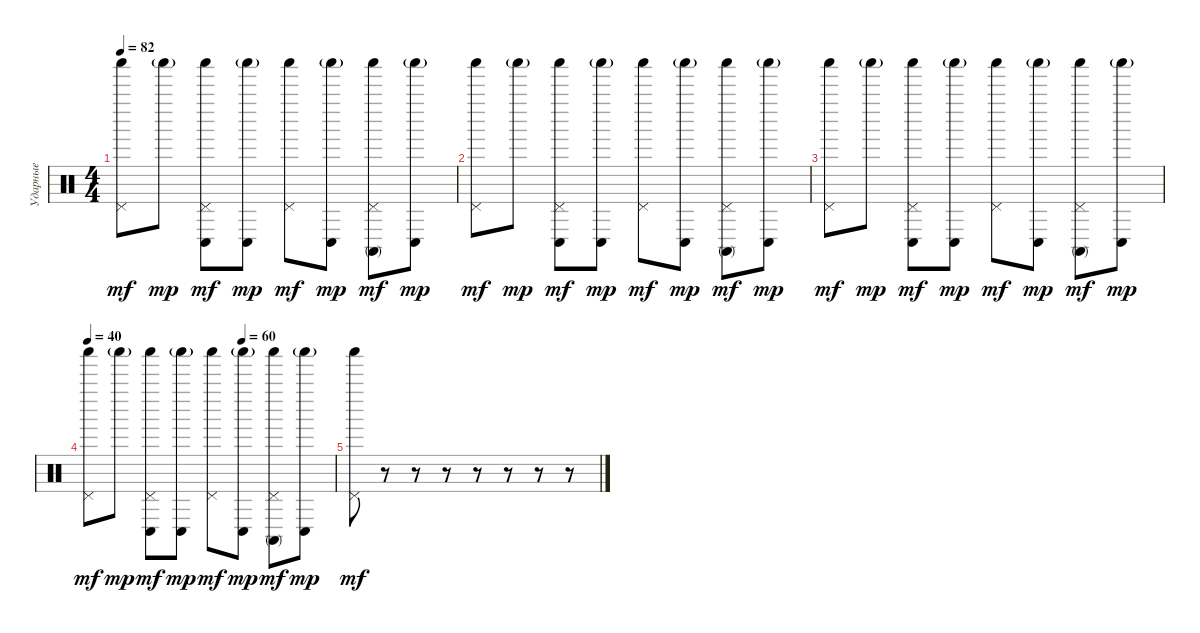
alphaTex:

\track ("Ударные" "Ударные") {instrument percussion}
\staff {score}
\articulation defaults
\ts (4 4)
\tempo 82
\clef neutral
\ks aminor
("Shaker (hit)" "Pedal Hi-Hat (hit)").8{dy mf} "Shaker (hit)"{g}.8{dy mp} ("Shaker (hit)" "Conga low (hit)" "Pedal Hi-Hat (hit)").8{dy mf} ("Shaker (hit)"{g} "Conga low (hit)").8{dy mp} ("Shaker (hit)" "Pedal Hi-Hat (hit)").8{dy mf} ("Shaker (hit)"{g} "Conga low (hit)").8{dy mp} ("Shaker (hit)" "Conga high (mute)" "Pedal Hi-Hat (hit)").8{dy mf} ("Shaker (hit)"{g} "Conga low (hit)").8{dy mp} |
("Shaker (hit)" "Pedal Hi-Hat (hit)").8{dy mf} "Shaker (hit)"{g}.8{dy mp} ("Shaker (hit)" "Conga low (hit)" "Pedal Hi-Hat (hit)").8{dy mf} ("Shaker (hit)"{g} "Conga low (hit)").8{dy mp} ("Shaker (hit)" "Pedal Hi-Hat (hit)").8{dy mf} ("Shaker (hit)"{g} "Conga low (hit)").8{dy mp} ("Shaker (hit)" "Conga high (mute)" "Pedal Hi-Hat (hit)").8{dy mf} ("Shaker (hit)"{g} "Conga low (hit)").8{dy mp} |
("Shaker (hit)" "Pedal Hi-Hat (hit)").8{dy mf} "Shaker (hit)"{g}.8{dy mp} ("Shaker (hit)" "Conga low (hit)" "Pedal Hi-Hat (hit)").8{dy mf} ("Shaker (hit)"{g} "Conga low (hit)").8{dy mp} ("Shaker (hit)" "Pedal Hi-Hat (hit)").8{dy mf} ("Shaker (hit)"{g} "Conga low (hit)").8{dy mp} ("Shaker (hit)" "Conga high (mute)" "Pedal Hi-Hat (hit)").8{dy mf} ("Shaker (hit)"{g} "Conga low (hit)").8{dy mp} |
\tempo 40
\tempo (60 0.625)
("Shaker (hit)" "Pedal Hi-Hat (hit)").8{dy mf} "Shaker (hit)"{g}.8{dy mp} ("Shaker (hit)" "Conga low (hit)" "Pedal Hi-Hat (hit)").8{dy mf} ("Shaker (hit)"{g} "Conga low (hit)").8{dy mp} ("Shaker (hit)" "Pedal Hi-Hat (hit)").8{dy mf} ("Shaker (hit)"{g} "Conga low (hit)").8{dy mp} ("Shaker (hit)" "Conga high (mute)" "Pedal Hi-Hat (hit)").8{dy mf} ("Shaker (hit)"{g} "Conga low (hit)").8{dy mp} |
("Shaker (hit)" "Pedal Hi-Hat (hit)").8{dy mf} r.8 r.8 r.8 r.8 r.8 r.8 r.8
